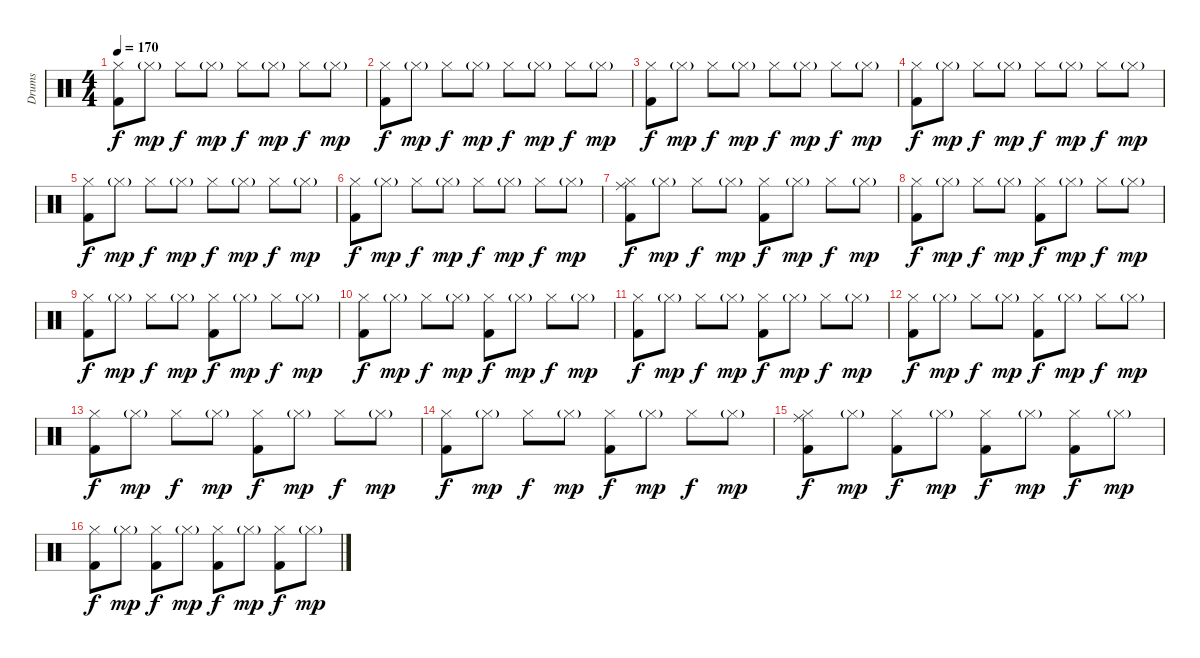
\track ("Drums" "Drums") {instrument percussion}
\staff {score}
\articulation defaults
\ts (4 4)
\tempo 170
\clef neutral
\ks c
("Hi-Hat (closed)" "Kick (hit) 2").8{dy f} "Hi-Hat (closed)"{g}.8{dy mp} "Hi-Hat (closed)".8{dy f} "Hi-Hat (closed)"{g}.8{dy mp} "Hi-Hat (closed)".8{dy f} "Hi-Hat (closed)"{g}.8{dy mp} "Hi-Hat (closed)".8{dy f} "Hi-Hat (closed)"{g}.8{dy mp} |
("Hi-Hat (closed)" "Kick (hit) 2").8{dy f} "Hi-Hat (closed)"{g}.8{dy mp} "Hi-Hat (closed)".8{dy f} "Hi-Hat (closed)"{g}.8{dy mp} "Hi-Hat (closed)".8{dy f} "Hi-Hat (closed)"{g}.8{dy mp} "Hi-Hat (closed)".8{dy f} "Hi-Hat (closed)"{g}.8{dy mp} |
("Hi-Hat (closed)" "Kick (hit) 2").8{dy f} "Hi-Hat (closed)"{g}.8{dy mp} "Hi-Hat (closed)".8{dy f} "Hi-Hat (closed)"{g}.8{dy mp} "Hi-Hat (closed)".8{dy f} "Hi-Hat (closed)"{g}.8{dy mp} "Hi-Hat (closed)".8{dy f} "Hi-Hat (closed)"{g}.8{dy mp} |
("Hi-Hat (closed)" "Kick (hit) 2").8{dy f} "Hi-Hat (closed)"{g}.8{dy mp} "Hi-Hat (closed)".8{dy f} "Hi-Hat (closed)"{g}.8{dy mp} "Hi-Hat (closed)".8{dy f} "Hi-Hat (closed)"{g}.8{dy mp} "Hi-Hat (closed)".8{dy f} "Hi-Hat (closed)"{g}.8{dy mp} |
("Hi-Hat (closed)" "Kick (hit) 2").8{dy f} "Hi-Hat (closed)"{g}.8{dy mp} "Hi-Hat (closed)".8{dy f} "Hi-Hat (closed)"{g}.8{dy mp} "Hi-Hat (closed)".8{dy f} "Hi-Hat (closed)"{g}.8{dy mp} "Hi-Hat (closed)".8{dy f} "Hi-Hat (closed)"{g}.8{dy mp} |
("Hi-Hat (closed)" "Kick (hit) 2").8{dy f} "Hi-Hat (closed)"{g}.8{dy mp} "Hi-Hat (closed)".8{dy f} "Hi-Hat (closed)"{g}.8{dy mp} "Hi-Hat (closed)".8{dy f} "Hi-Hat (closed)"{g}.8{dy mp} "Hi-Hat (closed)".8{dy f} "Hi-Hat (closed)"{g}.8{dy mp} |
("Ride (middle)" "Hi-Hat (closed)" "Kick (hit) 2").8{dy f} "Hi-Hat (closed)"{g}.8{dy mp} "Hi-Hat (closed)".8{dy f} "Hi-Hat (closed)"{g}.8{dy mp} ("Hi-Hat (closed)" "Kick (hit) 2").8{dy f} "Hi-Hat (closed)"{g}.8{dy mp} "Hi-Hat (closed)".8{dy f} "Hi-Hat (closed)"{g}.8{dy mp} |
("Hi-Hat (closed)" "Kick (hit) 2").8{dy f} "Hi-Hat (closed)"{g}.8{dy mp} "Hi-Hat (closed)".8{dy f} "Hi-Hat (closed)"{g}.8{dy mp} ("Hi-Hat (closed)" "Kick (hit) 2").8{dy f} "Hi-Hat (closed)"{g}.8{dy mp} "Hi-Hat (closed)".8{dy f} "Hi-Hat (closed)"{g}.8{dy mp} |
("Hi-Hat (closed)" "Kick (hit) 2").8{dy f} "Hi-Hat (closed)"{g}.8{dy mp} "Hi-Hat (closed)".8{dy f} "Hi-Hat (closed)"{g}.8{dy mp} ("Hi-Hat (closed)" "Kick (hit) 2").8{dy f} "Hi-Hat (closed)"{g}.8{dy mp} "Hi-Hat (closed)".8{dy f} "Hi-Hat (closed)"{g}.8{dy mp} |
("Hi-Hat (closed)" "Kick (hit) 2").8{dy f} "Hi-Hat (closed)"{g}.8{dy mp} "Hi-Hat (closed)".8{dy f} "Hi-Hat (closed)"{g}.8{dy mp} ("Hi-Hat (closed)" "Kick (hit) 2").8{dy f} "Hi-Hat (closed)"{g}.8{dy mp} "Hi-Hat (closed)".8{dy f} "Hi-Hat (closed)"{g}.8{dy mp} |
("Hi-Hat (closed)" "Kick (hit) 2").8{dy f} "Hi-Hat (closed)"{g}.8{dy mp} "Hi-Hat (closed)".8{dy f} "Hi-Hat (closed)"{g}.8{dy mp} ("Hi-Hat (closed)" "Kick (hit) 2").8{dy f} "Hi-Hat (closed)"{g}.8{dy mp} "Hi-Hat (closed)".8{dy f} "Hi-Hat (closed)"{g}.8{dy mp} |
("Hi-Hat (closed)" "Kick (hit) 2").8{dy f} "Hi-Hat (closed)"{g}.8{dy mp} "Hi-Hat (closed)".8{dy f} "Hi-Hat (closed)"{g}.8{dy mp} ("Hi-Hat (closed)" "Kick (hit) 2").8{dy f} "Hi-Hat (closed)"{g}.8{dy mp} "Hi-Hat (closed)".8{dy f} "Hi-Hat (closed)"{g}.8{dy mp} |
("Hi-Hat (closed)" "Kick (hit) 2").8{dy f} "Hi-Hat (closed)"{g}.8{dy mp} "Hi-Hat (closed)".8{dy f} "Hi-Hat (closed)"{g}.8{dy mp} ("Hi-Hat (closed)" "Kick (hit) 2").8{dy f} "Hi-Hat (closed)"{g}.8{dy mp} "Hi-Hat (closed)".8{dy f} "Hi-Hat (closed)"{g}.8{dy mp} |
("Hi-Hat (closed)" "Kick (hit) 2").8{dy f} "Hi-Hat (closed)"{g}.8{dy mp} "Hi-Hat (closed)".8{dy f} "Hi-Hat (closed)"{g}.8{dy mp} ("Hi-Hat (closed)" "Kick (hit) 2").8{dy f} "Hi-Hat (closed)"{g}.8{dy mp} "Hi-Hat (closed)".8{dy f} "Hi-Hat (closed)"{g}.8{dy mp} |
("Ride (middle)" "Hi-Hat (closed)" "Kick (hit) 2").8{dy f} "Hi-Hat (closed)"{g}.8{dy mp} ("Hi-Hat (closed)" "Kick (hit) 2").8{dy f} "Hi-Hat (closed)"{g}.8{dy mp} ("Hi-Hat (closed)" "Kick (hit) 2").8{dy f} "Hi-Hat (closed)"{g}.8{dy mp} ("Hi-Hat (closed)" "Kick (hit) 2").8{dy f} "Hi-Hat (closed)"{g}.8{dy mp} |
("Hi-Hat (closed)" "Kick (hit) 2").8{dy f} "Hi-Hat (closed)"{g}.8{dy mp} ("Hi-Hat (closed)" "Kick (hit) 2").8{dy f} "Hi-Hat (closed)"{g}.8{dy mp} ("Hi-Hat (closed)" "Kick (hit) 2").8{dy f} "Hi-Hat (closed)"{g}.8{dy mp} ("Hi-Hat (closed)" "Kick (hit) 2").8{dy f} "Hi-Hat (closed)"{g}.8{dy mp}
